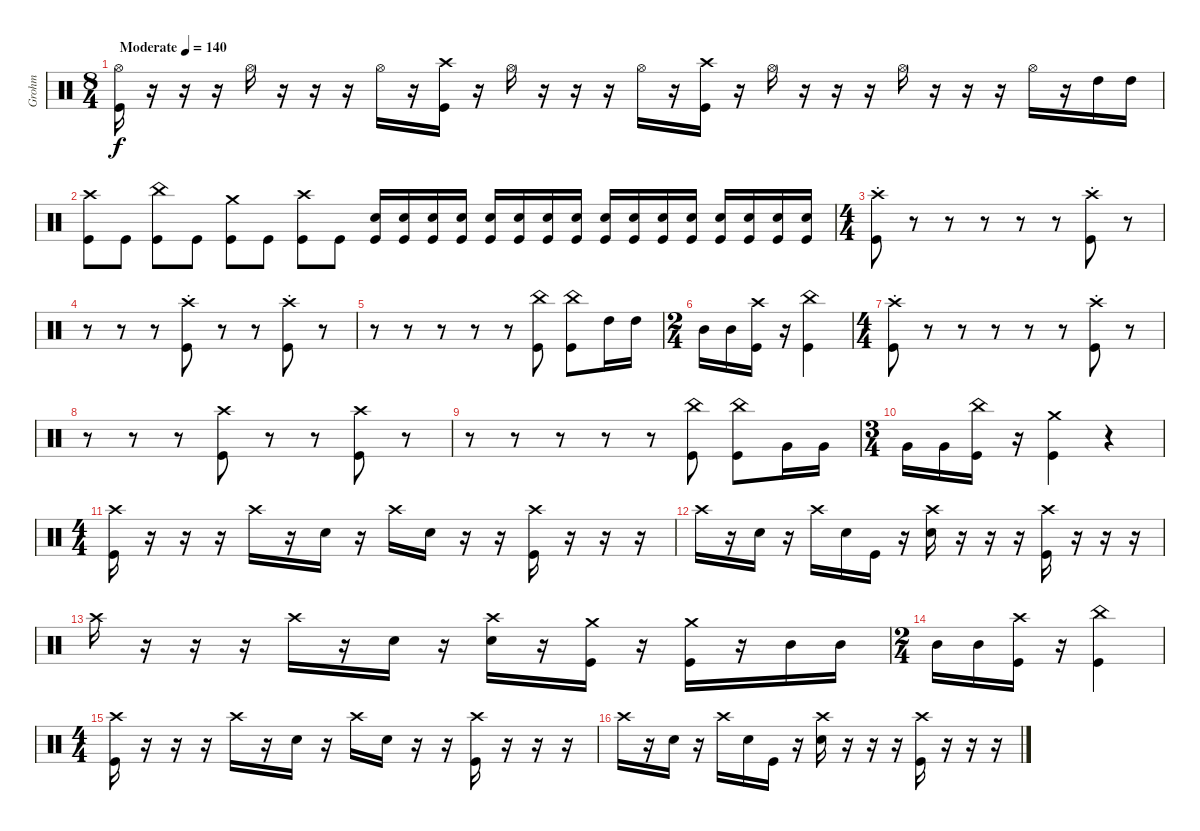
\track ("Grohm" "Grohm") {instrument percussion}
\staff {score}
\articulation defaults
\ts (8 4)
\tempo (140 "Moderate")
\clef neutral
\ks c
("Hi-Hat (open)" "Kick (hit)").16{dy f} r.16 r.16 r.16 "Hi-Hat (open)".16 r.16 r.16 r.16 "Hi-Hat (open)".16 r.16 ("Crash high (hit)" "Kick (hit)").16 r.16 "Hi-Hat (open)".16 r.16 r.16 r.16 "Hi-Hat (open)".16 r.16 ("Crash high (hit)" "Kick (hit)").16 r.16 "Hi-Hat (open)".16 r.16 r.16 r.16 "Hi-Hat (open)".16 r.16 r.16 r.16 "Hi-Hat (open)".16 r.16 "High Tom (hit)".16 "High Tom (hit)".16 |
("Crash high (hit)" "Kick (hit)").8 "Kick (hit)".8 ("China (hit)" "Kick (hit)").8 "Kick (hit)".8 ("Crash medium (hit)" "Kick (hit)").8 "Kick (hit)".8 ("Crash high (hit)" "Kick (hit)").8 "Kick (hit)".8 ("Snare (hit) 2" "Kick (hit)").16 ("Snare (hit) 2" "Kick (hit)").16 ("Snare (hit) 2" "Kick (hit)").16 ("Snare (hit) 2" "Kick (hit)").16 ("Snare (hit) 2" "Kick (hit)").16 ("Snare (hit) 2" "Kick (hit)").16 ("Snare (hit) 2" "Kick (hit)").16 ("Snare (hit) 2" "Kick (hit)").16 ("Snare (hit) 2" "Kick (hit)").16 ("Snare (hit) 2" "Kick (hit)").16 ("Snare (hit) 2" "Kick (hit)").16 ("Snare (hit) 2" "Kick (hit)").16 ("Snare (hit) 2" "Kick (hit)").16 ("Snare (hit) 2" "Kick (hit)").16 ("Snare (hit) 2" "Kick (hit)").16 ("Snare (hit) 2" "Kick (hit)").16 |
\ts (4 4)
("Crash high (hit)"{st} "Kick (hit)"{st}).8 r.8 r.8 r.8 r.8 r.8 ("Crash high (hit)"{st} "Kick (hit)"{st}).8 r.8 |
r.8 r.8 r.8 ("Crash high (hit)"{st} "Kick (hit)"{st}).8 r.8 r.8 ("Crash high (hit)"{st} "Kick (hit)"{st}).8 r.8 |
r.8 r.8 r.8 r.8 r.8 ("China (hit)" "Kick (hit)").8 ("China (hit)" "Kick (hit)").8 "High Tom (hit)".16 "High Tom (hit)".16 |
\ts (2 4)
"Mid Tom (hit)".16 "Mid Tom (hit)".16 ("Crash high (hit)" "Kick (hit)").16 r.16 ("China (hit)" "Kick (hit)").4 |
\ts (4 4)
("Crash high (hit)"{st} "Kick (hit)"{st}).8 r.8 r.8 r.8 r.8 r.8 ("Crash high (hit)"{st} "Kick (hit)"{st}).8 r.8 |
r.8 r.8 r.8 ("Crash high (hit)" "Kick (hit)").8 r.8 r.8 ("Crash high (hit)" "Kick (hit)").8 r.8 |
r.8 r.8 r.8 r.8 r.8 ("China (hit)" "Kick (hit)").8 ("China (hit)" "Kick (hit)").8 "Very Low Tom (hit)".16 "Very Low Tom (hit)".16 |
\ts (3 4)
"Very Low Tom (hit)".16 "Very Low Tom (hit)".16 ("China (hit)" "Kick (hit)").16 r.16 ("Crash medium (hit)" "Kick (hit)").4 r.4 |
\ts (4 4)
("Crash high (hit)" "Kick (hit)").16 r.16 r.16 r.16 "Crash high (hit)".16 r.16 "Snare (hit) 2".16 r.16 "Crash high (hit)".16 "Snare (hit) 2".16 r.16 r.16 ("Crash high (hit)" "Kick (hit)").16 r.16 r.16 r.16 |
"Crash high (hit)".16 r.16 "Snare (hit) 2".16 r.16 "Crash high (hit)".16 "Snare (hit) 2".16 "Kick (hit)".16 r.16 ("Crash high (hit)" "Snare (hit) 2").16 r.16 r.16 r.16 ("Crash high (hit)" "Kick (hit)").16 r.16 r.16 r.16 |
"Crash high (hit)".16 r.16 r.16 r.16 "Crash high (hit)".16 r.16 "Snare (hit) 2".16 r.16 ("Crash high (hit)" "Snare (hit) 2").16 r.16 ("Crash medium (hit)" "Kick (hit)").16 r.16 ("Crash medium (hit)" "Kick (hit)").16 r.16 "Mid Tom (hit)".16 "Mid Tom (hit)".16 |
\ts (2 4)
"Mid Tom (hit)".16 "Mid Tom (hit)".16 ("Crash high (hit)" "Kick (hit)").16 r.16 ("China (hit)" "Kick (hit)").4 |
\ts (4 4)
("Crash high (hit)" "Kick (hit)").16 r.16 r.16 r.16 "Crash high (hit)".16 r.16 "Snare (hit) 2".16 r.16 "Crash high (hit)".16 "Snare (hit) 2".16 r.16 r.16 ("Crash high (hit)" "Kick (hit)").16 r.16 r.16 r.16 |
"Crash high (hit)".16 r.16 "Snare (hit) 2".16 r.16 "Crash high (hit)".16 "Snare (hit) 2".16 "Kick (hit)".16 r.16 ("Crash high (hit)" "Snare (hit) 2").16 r.16 r.16 r.16 ("Crash high (hit)" "Kick (hit)").16 r.16 r.16 r.16
